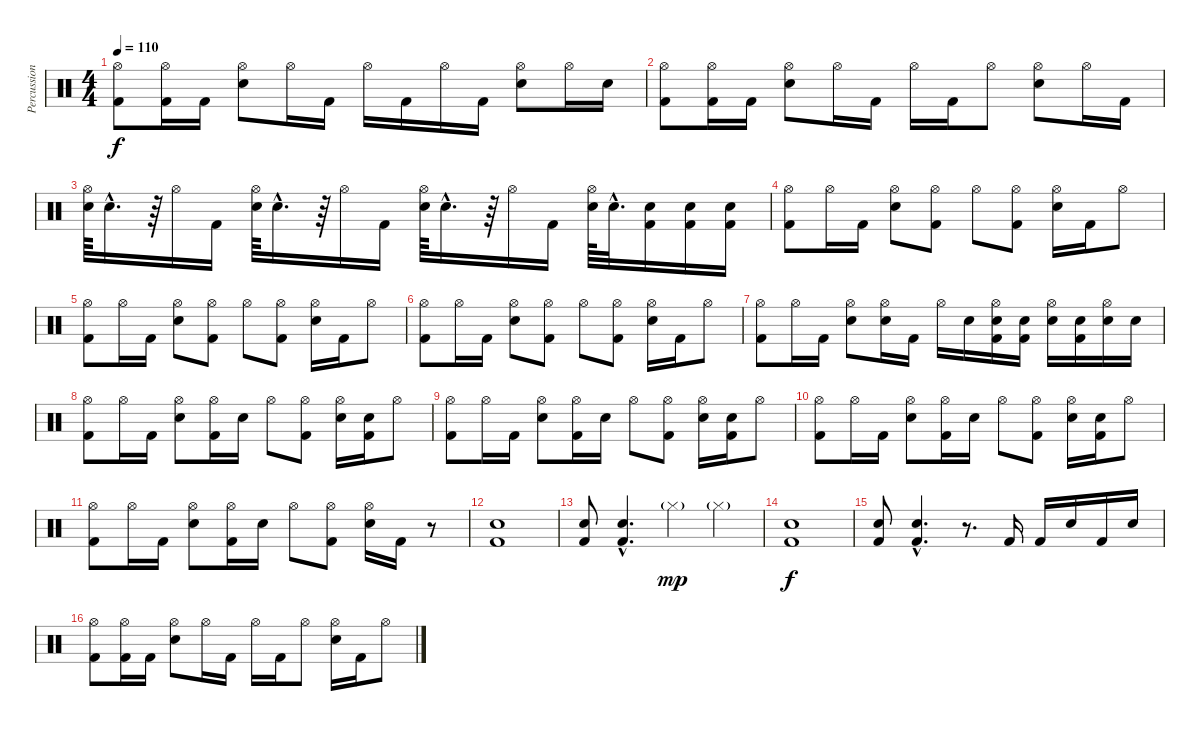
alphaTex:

\track ("Percussions" "Percussion") {instrument percussion}
\staff {score}
\articulation defaults
\ts (4 4)
\tempo 110
\clef neutral
\ks c
("Hi-Hat (open)" "Kick (hit) 2").8{dy f} ("Hi-Hat (open)" "Kick (hit) 2").16 "Kick (hit) 2".16 ("Electric Snare (hit)" "Hi-Hat (open)").8 "Hi-Hat (open)".16 "Kick (hit) 2".16 "Hi-Hat (open)".16 "Kick (hit) 2".16 "Hi-Hat (open)".16 "Kick (hit) 2".16 ("Electric Snare (hit)" "Hi-Hat (open)").8 "Hi-Hat (open)".16 "Electric Snare (hit)".16 |
("Hi-Hat (open)" "Kick (hit) 2").8 ("Hi-Hat (open)" "Kick (hit) 2").16 "Kick (hit) 2".16 ("Electric Snare (hit)" "Hi-Hat (open)").8 "Hi-Hat (open)".16 "Kick (hit) 2".16 "Hi-Hat (open)".16 "Kick (hit) 2".16 "Hi-Hat (open)".8 ("Electric Snare (hit)" "Hi-Hat (open)").8 "Hi-Hat (open)".16 "Kick (hit) 2".16 |
("Electric Snare (hit)" "Hi-Hat (open)").64 "Electric Snare (hit)"{hac}.16{d} r.64 "Hi-Hat (open)".16 "Kick (hit) 2".16 ("Electric Snare (hit)" "Hi-Hat (open)").64 "Electric Snare (hit)"{hac}.16{d} r.64 "Hi-Hat (open)".16 "Kick (hit) 2".16 ("Electric Snare (hit)" "Hi-Hat (open)").64 "Electric Snare (hit)"{hac}.16{d} r.64 "Hi-Hat (open)".16 "Kick (hit) 2".16 ("Electric Snare (hit)" "Hi-Hat (open)").64 "Electric Snare (hit)"{hac}.32{d} ("Electric Snare (hit)" "Kick (hit) 2").16 ("Electric Snare (hit)" "Kick (hit) 2").16 ("Electric Snare (hit)" "Kick (hit) 2").16 |
("Hi-Hat (open)" "Kick (hit) 2").8 "Hi-Hat (open)".16 "Kick (hit) 2".16 ("Electric Snare (hit)" "Hi-Hat (open)").8 ("Hi-Hat (open)" "Kick (hit) 2").8 "Hi-Hat (open)".8 ("Hi-Hat (open)" "Kick (hit) 2").8 ("Electric Snare (hit)" "Hi-Hat (open)").16 "Kick (hit) 2".16 "Hi-Hat (open)".8 |
("Hi-Hat (open)" "Kick (hit) 2").8 "Hi-Hat (open)".16 "Kick (hit) 2".16 ("Electric Snare (hit)" "Hi-Hat (open)").8 ("Hi-Hat (open)" "Kick (hit) 2").8 "Hi-Hat (open)".8 ("Hi-Hat (open)" "Kick (hit) 2").8 ("Electric Snare (hit)" "Hi-Hat (open)").16 "Kick (hit) 2".16 "Hi-Hat (open)".8 |
("Hi-Hat (open)" "Kick (hit) 2").8 "Hi-Hat (open)".16 "Kick (hit) 2".16 ("Electric Snare (hit)" "Hi-Hat (open)").8 ("Hi-Hat (open)" "Kick (hit) 2").8 "Hi-Hat (open)".8 ("Hi-Hat (open)" "Kick (hit) 2").8 ("Electric Snare (hit)" "Hi-Hat (open)").16 "Kick (hit) 2".16 "Hi-Hat (open)".8 |
("Hi-Hat (open)" "Kick (hit) 2").8 "Hi-Hat (open)".16 "Kick (hit) 2".16 ("Electric Snare (hit)" "Hi-Hat (open)").8 ("Electric Snare (hit)" "Hi-Hat (open)").16 "Kick (hit) 2".16 "Hi-Hat (open)".16 "Electric Snare (hit)".16 ("Electric Snare (hit)" "Hi-Hat (open)" "Kick (hit) 2").16 ("Electric Snare (hit)" "Kick (hit) 2").16 ("Electric Snare (hit)" "Hi-Hat (open)").16 ("Electric Snare (hit)" "Kick (hit) 2").16 ("Electric Snare (hit)" "Hi-Hat (open)").16 "Electric Snare (hit)".16 |
("Hi-Hat (open)" "Kick (hit) 2").8 "Hi-Hat (open)".16 "Kick (hit) 2".16 ("Electric Snare (hit)" "Hi-Hat (open)").8 ("Hi-Hat (open)" "Kick (hit) 2").16 "Electric Snare (hit)".16 "Hi-Hat (open)".8 ("Hi-Hat (open)" "Kick (hit) 2").8 ("Electric Snare (hit)" "Hi-Hat (open)").16 ("Electric Snare (hit)" "Kick (hit) 2").16 "Hi-Hat (open)".8 |
("Hi-Hat (open)" "Kick (hit) 2").8 "Hi-Hat (open)".16 "Kick (hit) 2".16 ("Electric Snare (hit)" "Hi-Hat (open)").8 ("Hi-Hat (open)" "Kick (hit) 2").16 "Electric Snare (hit)".16 "Hi-Hat (open)".8 ("Hi-Hat (open)" "Kick (hit) 2").8 ("Electric Snare (hit)" "Hi-Hat (open)").16 ("Electric Snare (hit)" "Kick (hit) 2").16 "Hi-Hat (open)".8 |
("Hi-Hat (open)" "Kick (hit) 2").8 "Hi-Hat (open)".16 "Kick (hit) 2".16 ("Electric Snare (hit)" "Hi-Hat (open)").8 ("Hi-Hat (open)" "Kick (hit) 2").16 "Electric Snare (hit)".16 "Hi-Hat (open)".8 ("Hi-Hat (open)" "Kick (hit) 2").8 ("Electric Snare (hit)" "Hi-Hat (open)").16 ("Electric Snare (hit)" "Kick (hit) 2").16 "Hi-Hat (open)".8 |
("Hi-Hat (open)" "Kick (hit) 2").8 "Hi-Hat (open)".16 "Kick (hit) 2".16 ("Electric Snare (hit)" "Hi-Hat (open)").8 ("Hi-Hat (open)" "Kick (hit) 2").16 "Electric Snare (hit)".16 "Hi-Hat (open)".8 ("Hi-Hat (open)" "Kick (hit) 2").8 ("Electric Snare (hit)" "Hi-Hat (open)").16 "Kick (hit) 2".16 r.8 |
("Electric Snare (hit)" "Kick (hit) 2").1 |
("Electric Snare (hit)" "Kick (hit) 2").8 ("Electric Snare (hit)"{hac} "Kick (hit) 2"{hac}).4{d} "Hi-Hat (closed)"{g}.4{dy mp} "Hi-Hat (closed)"{g}.4 |
("Electric Snare (hit)" "Kick (hit) 2").1{dy f} |
("Electric Snare (hit)" "Kick (hit) 2").8 ("Electric Snare (hit)"{hac} "Kick (hit) 2"{hac}).4{d} r.8{d} "Kick (hit) 2".16 "Kick (hit) 2".16 "Electric Snare (hit)".16 "Kick (hit) 2".16 "Electric Snare (hit)".16 |
("Hi-Hat (open)" "Kick (hit) 2").8 ("Hi-Hat (open)" "Kick (hit) 2").16 "Kick (hit) 2".16 ("Electric Snare (hit)" "Hi-Hat (open)").8 "Hi-Hat (open)".16 "Kick (hit) 2".16 "Hi-Hat (open)".16 "Kick (hit) 2".16 "Hi-Hat (open)".8 ("Electric Snare (hit)" "Hi-Hat (open)").16 "Kick (hit) 2".16 "Hi-Hat (open)".8
